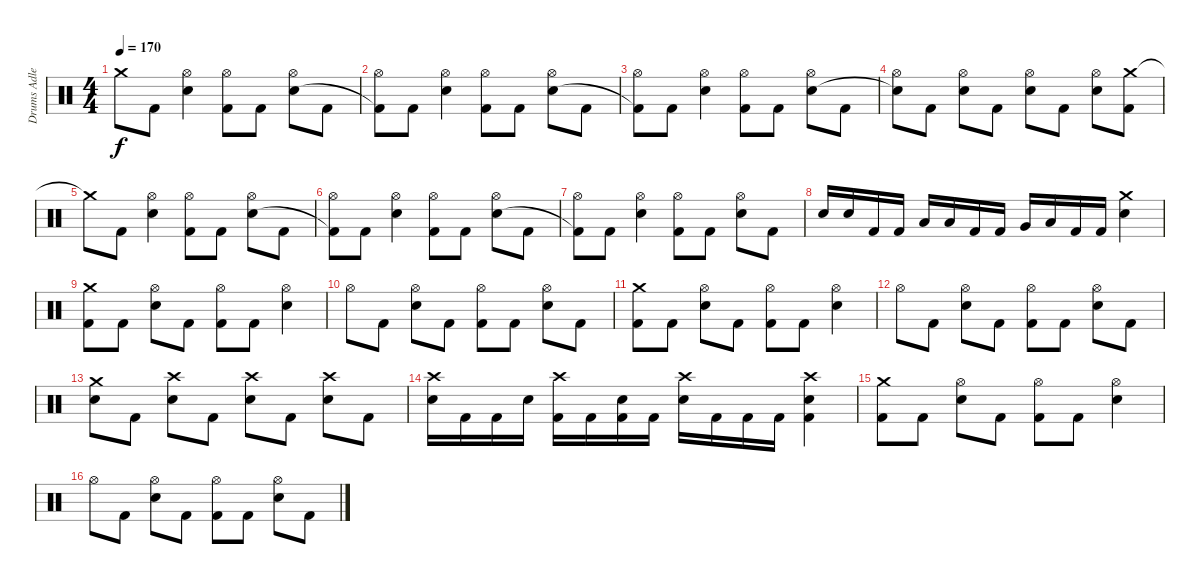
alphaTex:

\track ("Drums Adler" "Drums Adle") {instrument percussion}
\staff {score}
\articulation defaults
\ts (4 4)
\tempo 170
\clef neutral
\ks c "Crash medium (hit)"{t}.8{dy f} "Kick (hit) 2".8
("Hi-Hat (open)" "Snare (hit) 2").4 ("Hi-Hat (open)" "Kick (hit) 2").8 "Kick (hit) 2".8 ("Hi-Hat (open)" "Snare (hit) 2").8 "Kick (hit) 2".8 |
("Hi-Hat (open)" "Kick (hit) 2"{t}).8 "Kick (hit) 2".8 ("Hi-Hat (open)" "Snare (hit) 2").4 ("Hi-Hat (open)" "Kick (hit) 2").8 "Kick (hit) 2".8 ("Hi-Hat (open)" "Snare (hit) 2").8 "Kick (hit) 2".8 |
("Hi-Hat (open)" "Kick (hit) 2"{t}).8 "Kick (hit) 2".8 ("Hi-Hat (open)" "Snare (hit) 2").4 ("Hi-Hat (open)" "Kick (hit) 2").8 "Kick (hit) 2".8 ("Hi-Hat (open)" "Snare (hit) 2").8 "Kick (hit) 2".8 |
("Hi-Hat (open)" "Snare (hit)"{t}).8 "Kick (hit) 2".8 ("Hi-Hat (open)" "Snare (hit) 2").8 "Kick (hit) 2".8 ("Hi-Hat (open)" "Snare (hit) 2").8 "Kick (hit) 2".8 ("Hi-Hat (open)" "Snare (hit) 2").8 ("Crash medium (hit)" "Kick (hit) 2").8 |
"Crash medium (hit)"{t}.8 "Kick (hit) 2".8 ("Hi-Hat (open)" "Snare (hit) 2").4 ("Hi-Hat (open)" "Kick (hit) 2").8 "Kick (hit) 2".8 ("Hi-Hat (open)" "Snare (hit) 2").8 "Kick (hit) 2".8 |
("Hi-Hat (open)" "Kick (hit) 2"{t}).8 "Kick (hit) 2".8 ("Hi-Hat (open)" "Snare (hit) 2").4 ("Hi-Hat (open)" "Kick (hit) 2").8 "Kick (hit) 2".8 ("Hi-Hat (open)" "Snare (hit) 2").8 "Kick (hit) 2".8 |
("Hi-Hat (open)" "Kick (hit) 2"{t}).8 "Kick (hit) 2".8 ("Hi-Hat (open)" "Snare (hit) 2").4 ("Hi-Hat (open)" "Kick (hit) 2").8 "Kick (hit) 2".8 ("Hi-Hat (open)" "Snare (hit) 2").8 "Kick (hit) 2".8 |
"Snare (hit) 2".16 "Snare (hit) 2".16 "Kick (hit) 2".16 "Kick (hit) 2".16 "Low Tom (hit)".16 "Low Tom (hit)".16 "Kick (hit) 2".16 "Kick (hit) 2".16 "Very Low Tom (hit)".16 "Low Floor Tom (hit)".16 "Kick (hit) 2".16 "Kick (hit) 2".16 ("Crash medium (hit)" "Snare (hit) 2").4 |
("Crash medium (hit)" "Kick (hit) 2").8 "Kick (hit) 2".8 ("Hi-Hat (open)" "Snare (hit) 2").8 "Kick (hit) 2".8 ("Hi-Hat (open)" "Kick (hit) 2").8 "Kick (hit) 2".8 ("Hi-Hat (open)" "Snare (hit) 2").4 |
"Hi-Hat (open)".8 "Kick (hit) 2".8 ("Hi-Hat (open)" "Snare (hit) 2").8 "Kick (hit) 2".8 ("Hi-Hat (open)" "Kick (hit) 2").8 "Kick (hit) 2".8 ("Hi-Hat (open)" "Snare (hit) 2").8 "Kick (hit) 2".8 |
("Crash medium (hit)" "Kick (hit) 2").8 "Kick (hit) 2".8 ("Hi-Hat (open)" "Snare (hit) 2").8 "Kick (hit) 2".8 ("Hi-Hat (open)" "Kick (hit) 2").8 "Kick (hit) 2".8 ("Hi-Hat (open)" "Snare (hit) 2").4 |
"Hi-Hat (open)".8 "Kick (hit) 2".8 ("Hi-Hat (open)" "Snare (hit) 2").8 "Kick (hit) 2".8 ("Hi-Hat (open)" "Kick (hit) 2").8 "Kick (hit) 2".8 ("Hi-Hat (open)" "Snare (hit) 2").8 "Kick (hit) 2".8 |
("Crash medium (hit)" "Snare (hit) 2").8 "Kick (hit) 2".8 ("Crash high (hit)" "Snare (hit) 2").8 "Kick (hit) 2".8 ("Crash high (hit)" "Snare (hit) 2").8 "Kick (hit) 2".8 ("Crash high (hit)" "Snare (hit) 2").8 "Kick (hit) 2".8 |
("Crash high (hit)" "Snare (hit) 2").16 "Kick (hit) 2".16 "Kick (hit) 2".16 "Snare (hit) 2".16 ("Crash high (hit)" "Kick (hit) 2").16 "Kick (hit) 2".16 ("Snare (hit) 2" "Kick (hit) 2").16 "Kick (hit) 2".16 ("Crash high (hit)" "Snare (hit) 2").16 "Kick (hit) 2".16 "Kick (hit) 2".16 "Kick (hit) 2".16 ("Crash high (hit)" "Snare (hit) 2" "Kick (hit) 2").4 |
("Crash medium (hit)" "Kick (hit) 2").8 "Kick (hit) 2".8 ("Hi-Hat (open)" "Snare (hit) 2").8 "Kick (hit) 2".8 ("Hi-Hat (open)" "Kick (hit) 2").8 "Kick (hit) 2".8 ("Hi-Hat (open)" "Snare (hit) 2").4 |
"Hi-Hat (open)".8 "Kick (hit) 2".8 ("Hi-Hat (open)" "Snare (hit) 2").8 "Kick (hit) 2".8 ("Hi-Hat (open)" "Kick (hit) 2").8 "Kick (hit) 2".8 ("Hi-Hat (open)" "Snare (hit) 2").8 "Kick (hit) 2".8
